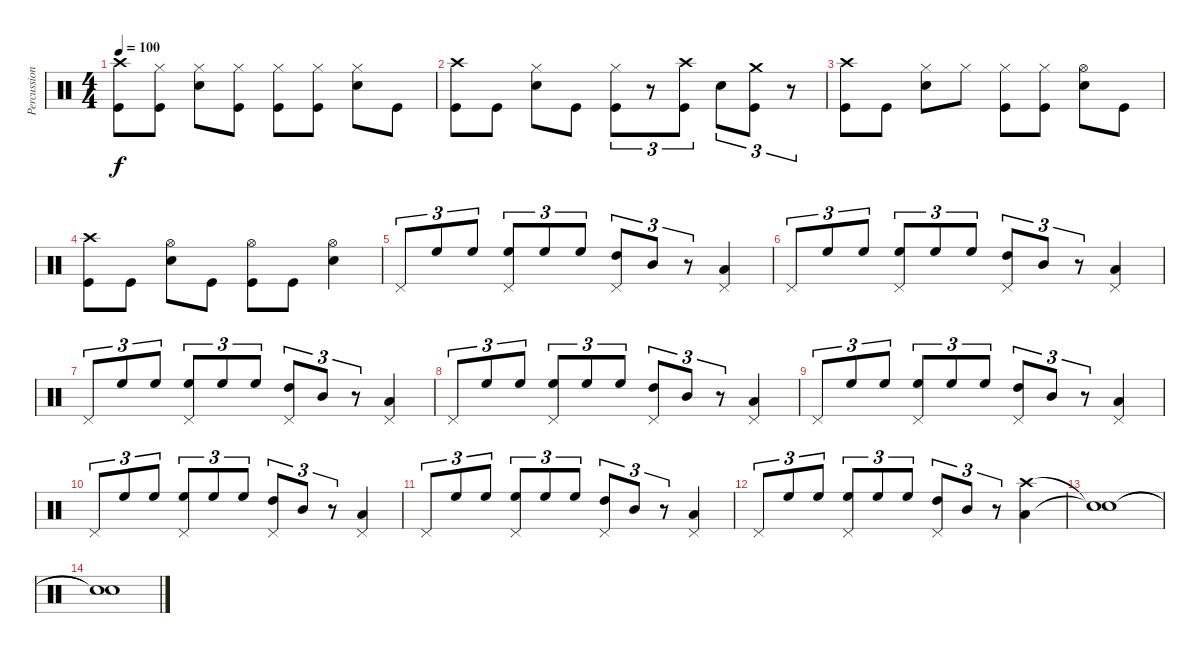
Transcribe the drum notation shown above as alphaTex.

\track ("Percussions" "Percussion") {instrument percussion}
\staff {score}
\articulation defaults
\ts (4 4)
\tempo 100
\clef neutral
\ks c
("Crash high (hit)" "Kick (hit)").8{dy f} ("Hi-Hat (closed)" "Kick (hit)").8 ("Hi-Hat (closed)" "Electric Snare (hit)").8 ("Hi-Hat (closed)" "Kick (hit)").8 ("Hi-Hat (closed)" "Kick (hit)").8 ("Hi-Hat (closed)" "Kick (hit)").8 ("Hi-Hat (closed)" "Electric Snare (hit)").8 "Kick (hit)".8 |
("Crash high (hit)" "Kick (hit)").8 "Kick (hit)".8 ("Hi-Hat (closed)" "Electric Snare (hit)").8 "Kick (hit)".8 ("Hi-Hat (closed)" "Kick (hit)").8{tu (3 2)} r.8{tu (3 2)} ("Crash high (hit)" "Kick (hit)").8{tu (3 2)} "Electric Snare (hit)".8{tu (3 2)} ("Crash medium (hit)" "Kick (hit)").8{tu (3 2)} r.8{tu (3 2)} |
("Crash high (hit)" "Kick (hit)").8 "Kick (hit)".8 ("Hi-Hat (closed)" "Electric Snare (hit)").8 "Hi-Hat (closed)".8 ("Hi-Hat (closed)" "Kick (hit)").8 ("Hi-Hat (closed)" "Kick (hit)").8 ("Hi-Hat (open)" "Electric Snare (hit)").8 "Kick (hit)".8 |
("Crash high (hit)" "Kick (hit)").8 "Kick (hit)".8 ("Hi-Hat (open)" "Electric Snare (hit)").8 "Kick (hit)".8 ("Hi-Hat (open)" "Kick (hit)").8 "Kick (hit)".8 ("Hi-Hat (open)" "Electric Snare (hit)").4 |
"Pedal Hi-Hat (hit)".8{tu (3 2)} "High Floor Tom (hit)".8{tu (3 2)} "High Floor Tom (hit)".8{tu (3 2)} ("High Floor Tom (hit)" "Pedal Hi-Hat (hit)").8{tu (3 2)} "High Floor Tom (hit)".8{tu (3 2)} "High Floor Tom (hit)".8{tu (3 2)} ("High Tom (hit)" "Pedal Hi-Hat (hit)").8{tu (3 2)} "Mid Tom (hit)".8{tu (3 2)} r.8{tu (3 2)} ("Low Tom (hit)" "Pedal Hi-Hat (hit)").4 |
"Pedal Hi-Hat (hit)".8{tu (3 2)} "High Floor Tom (hit)".8{tu (3 2)} "High Floor Tom (hit)".8{tu (3 2)} ("High Floor Tom (hit)" "Pedal Hi-Hat (hit)").8{tu (3 2)} "High Floor Tom (hit)".8{tu (3 2)} "High Floor Tom (hit)".8{tu (3 2)} ("High Tom (hit)" "Pedal Hi-Hat (hit)").8{tu (3 2)} "Mid Tom (hit)".8{tu (3 2)} r.8{tu (3 2)} ("Low Tom (hit)" "Pedal Hi-Hat (hit)").4 |
"Pedal Hi-Hat (hit)".8{tu (3 2)} "High Floor Tom (hit)".8{tu (3 2)} "High Floor Tom (hit)".8{tu (3 2)} ("High Floor Tom (hit)" "Pedal Hi-Hat (hit)").8{tu (3 2)} "High Floor Tom (hit)".8{tu (3 2)} "High Floor Tom (hit)".8{tu (3 2)} ("High Tom (hit)" "Pedal Hi-Hat (hit)").8{tu (3 2)} "Mid Tom (hit)".8{tu (3 2)} r.8{tu (3 2)} ("Low Tom (hit)" "Pedal Hi-Hat (hit)").4 |
"Pedal Hi-Hat (hit)".8{tu (3 2)} "High Floor Tom (hit)".8{tu (3 2)} "High Floor Tom (hit)".8{tu (3 2)} ("High Floor Tom (hit)" "Pedal Hi-Hat (hit)").8{tu (3 2)} "High Floor Tom (hit)".8{tu (3 2)} "High Floor Tom (hit)".8{tu (3 2)} ("High Tom (hit)" "Pedal Hi-Hat (hit)").8{tu (3 2)} "Mid Tom (hit)".8{tu (3 2)} r.8{tu (3 2)} ("Low Tom (hit)" "Pedal Hi-Hat (hit)").4 |
"Pedal Hi-Hat (hit)".8{tu (3 2)} "High Floor Tom (hit)".8{tu (3 2)} "High Floor Tom (hit)".8{tu (3 2)} ("High Floor Tom (hit)" "Pedal Hi-Hat (hit)").8{tu (3 2)} "High Floor Tom (hit)".8{tu (3 2)} "High Floor Tom (hit)".8{tu (3 2)} ("High Tom (hit)" "Pedal Hi-Hat (hit)").8{tu (3 2)} "Mid Tom (hit)".8{tu (3 2)} r.8{tu (3 2)} ("Low Tom (hit)" "Pedal Hi-Hat (hit)").4 |
"Pedal Hi-Hat (hit)".8{tu (3 2)} "High Floor Tom (hit)".8{tu (3 2)} "High Floor Tom (hit)".8{tu (3 2)} ("High Floor Tom (hit)" "Pedal Hi-Hat (hit)").8{tu (3 2)} "High Floor Tom (hit)".8{tu (3 2)} "High Floor Tom (hit)".8{tu (3 2)} ("High Tom (hit)" "Pedal Hi-Hat (hit)").8{tu (3 2)} "Mid Tom (hit)".8{tu (3 2)} r.8{tu (3 2)} ("Low Tom (hit)" "Pedal Hi-Hat (hit)").4 |
"Pedal Hi-Hat (hit)".8{tu (3 2)} "High Floor Tom (hit)".8{tu (3 2)} "High Floor Tom (hit)".8{tu (3 2)} ("High Floor Tom (hit)" "Pedal Hi-Hat (hit)").8{tu (3 2)} "High Floor Tom (hit)".8{tu (3 2)} "High Floor Tom (hit)".8{tu (3 2)} ("High Tom (hit)" "Pedal Hi-Hat (hit)").8{tu (3 2)} "Mid Tom (hit)".8{tu (3 2)} r.8{tu (3 2)} ("Low Tom (hit)" "Pedal Hi-Hat (hit)").4 |
"Pedal Hi-Hat (hit)".8{tu (3 2)} "High Floor Tom (hit)".8{tu (3 2)} "High Floor Tom (hit)".8{tu (3 2)} ("High Floor Tom (hit)" "Pedal Hi-Hat (hit)").8{tu (3 2)} "High Floor Tom (hit)".8{tu (3 2)} "High Floor Tom (hit)".8{tu (3 2)} ("High Tom (hit)" "Pedal Hi-Hat (hit)").8{tu (3 2)} "Mid Tom (hit)".8{tu (3 2)} r.8{tu (3 2)} ("Crash high (hit)" "Low Tom (hit)").4 |
("Snare (hit)"{t} "Snare (hit)"{t}).1 |
("Snare (hit)"{t} "Snare (hit)"{t}).1
